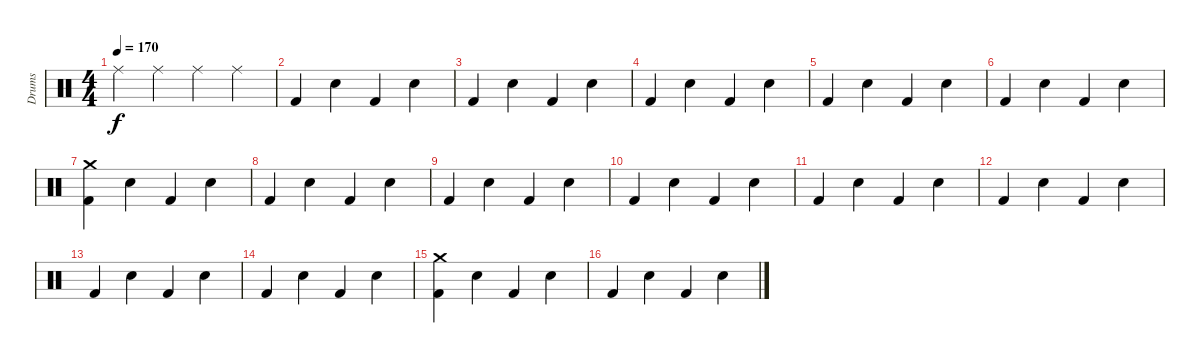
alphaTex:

\track ("Drums" "Drums") {instrument percussion}
\staff {score}
\articulation defaults
\ts (4 4)
\tempo 170
\clef neutral
\ks c "Ride (middle)".4{dy f} "Ride (middle)".4 "Ride (middle)".4 "Ride (middle)".4
|
"Kick (hit) 2".4 "Snare (hit) 2".4 "Kick (hit) 2".4 "Snare (hit) 2".4 |
"Kick (hit) 2".4 "Snare (hit) 2".4 "Kick (hit) 2".4 "Snare (hit) 2".4 |
"Kick (hit) 2".4 "Snare (hit) 2".4 "Kick (hit) 2".4 "Snare (hit) 2".4 |
"Kick (hit) 2".4 "Snare (hit) 2".4 "Kick (hit) 2".4 "Snare (hit) 2".4 |
"Kick (hit) 2".4 "Snare (hit) 2".4 "Kick (hit) 2".4 "Snare (hit) 2".4 |
("Crash medium (hit)" "Kick (hit) 2").4 "Snare (hit) 2".4 "Kick (hit) 2".4 "Snare (hit) 2".4 |
"Kick (hit) 2".4 "Snare (hit) 2".4 "Kick (hit) 2".4 "Snare (hit) 2".4 |
"Kick (hit) 2".4 "Snare (hit) 2".4 "Kick (hit) 2".4 "Snare (hit) 2".4 |
"Kick (hit) 2".4 "Snare (hit) 2".4 "Kick (hit) 2".4 "Snare (hit) 2".4 |
"Kick (hit) 2".4 "Snare (hit) 2".4 "Kick (hit) 2".4 "Snare (hit) 2".4 |
"Kick (hit) 2".4 "Snare (hit) 2".4 "Kick (hit) 2".4 "Snare (hit) 2".4 |
"Kick (hit) 2".4 "Snare (hit) 2".4 "Kick (hit) 2".4 "Snare (hit) 2".4 |
"Kick (hit) 2".4 "Snare (hit) 2".4 "Kick (hit) 2".4 "Snare (hit) 2".4 |
("Crash medium (hit)" "Kick (hit) 2").4 "Snare (hit) 2".4 "Kick (hit) 2".4 "Snare (hit) 2".4 |
"Kick (hit) 2".4 "Snare (hit) 2".4 "Kick (hit) 2".4 "Snare (hit) 2".4
